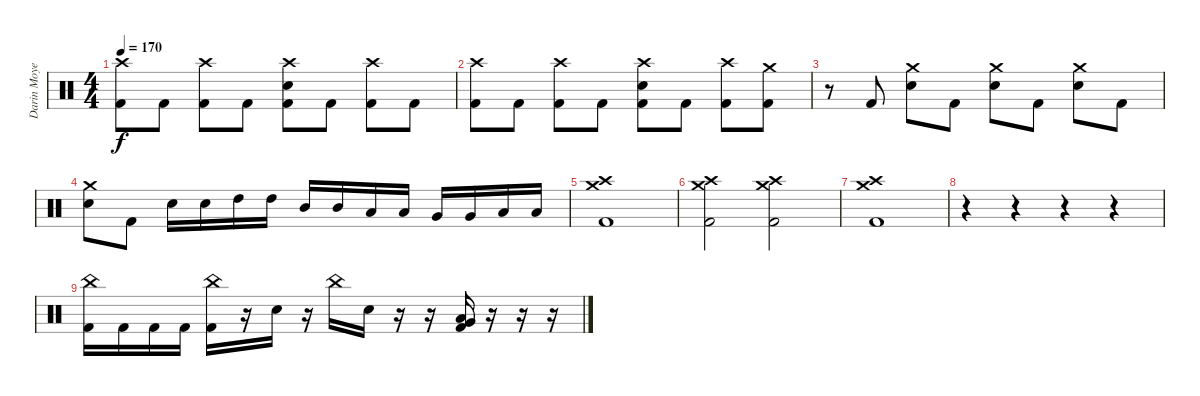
\track ("Darin Moyen" "Darin Moye") {instrument percussion}
\staff {score}
\articulation defaults
\ts (4 4)
\tempo 170
\clef neutral
\ks c
("Crash high (hit)" "Kick (hit) 2").8{dy f} "Kick (hit) 2".8 ("Crash high (hit)" "Kick (hit) 2").8 "Kick (hit) 2".8 ("Crash high (hit)" "Electric Snare (hit)" "Kick (hit) 2").8 "Kick (hit) 2".8 ("Crash high (hit)" "Kick (hit) 2").8 "Kick (hit) 2".8 |
("Crash high (hit)" "Kick (hit) 2").8 "Kick (hit) 2".8 ("Crash high (hit)" "Kick (hit) 2").8 "Kick (hit) 2".8 ("Crash high (hit)" "Electric Snare (hit)" "Kick (hit) 2").8 "Kick (hit) 2".8 ("Crash high (hit)" "Kick (hit) 2").8 ("Crash medium (hit)" "Kick (hit) 2").8 |
r.8 "Kick (hit) 2".8 ("Crash medium (hit)" "Electric Snare (hit)").8 "Kick (hit) 2".8 ("Crash medium (hit)" "Electric Snare (hit)").8 "Kick (hit) 2".8 ("Crash medium (hit)" "Electric Snare (hit)").8 "Kick (hit) 2".8 |
("Crash medium (hit)" "Electric Snare (hit)").8 "Kick (hit) 2".8 "Electric Snare (hit)".16 "Electric Snare (hit)".16 "High Tom (hit)".16 "High Tom (hit)".16 "Mid Tom (hit)".16 "Mid Tom (hit)".16 "Low Tom (hit)".16 "Low Tom (hit)".16 "Very Low Tom (hit)".16 "Very Low Tom (hit)".16 "Low Floor Tom (hit)".16 "Low Floor Tom (hit)".16 |
("Crash medium (hit)" "Crash high (hit)" "Kick (hit) 2").1 |
("Crash medium (hit)" "Crash high (hit)" "Kick (hit) 2").2 ("Crash medium (hit)" "Crash high (hit)" "Kick (hit) 2").2 |
("Crash high (hit)" "Crash medium (hit)" "Kick (hit) 2").1 |
r.4 r.4 r.4 r.4 |
("China (hit)" "Kick (hit) 2").16 "Kick (hit) 2".16 "Kick (hit) 2".16 "Kick (hit) 2".16 ("China (hit)" "Kick (hit) 2").16 r.16 "Electric Snare (hit)".16 r.16 "China (hit)".16 "Electric Snare (hit)".16 r.16 r.16 ("Low Tom (hit)" "Very Low Tom (hit)" "Kick (hit) 2").16 r.16 r.16 r.16
